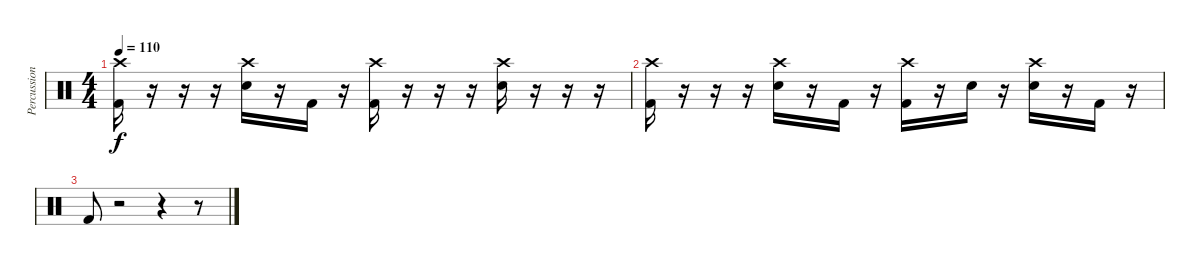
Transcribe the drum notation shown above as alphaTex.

\track ("Percussions" "Percussion") {instrument percussion}
\staff {score}
\articulation defaults
\ts (4 4)
\tempo 110
\clef neutral
\ks c
("Crash high (hit)" "Kick (hit) 2").16{dy f} r.16 r.16 r.16 ("Crash high (hit)" "Electric Snare (hit)").16 r.16 "Kick (hit) 2".16 r.16 ("Crash high (hit)" "Kick (hit) 2").16 r.16 r.16 r.16 ("Crash high (hit)" "Electric Snare (hit)").16 r.16 r.16 r.16 |
("Crash high (hit)" "Kick (hit) 2").16 r.16 r.16 r.16 ("Crash high (hit)" "Electric Snare (hit)").16 r.16 "Kick (hit) 2".16 r.16 ("Crash high (hit)" "Kick (hit) 2").16 r.16 "Electric Snare (hit)".16 r.16 ("Crash high (hit)" "Electric Snare (hit)").16 r.16 "Kick (hit) 2".16 r.16 |
"Kick (hit) 2".8 r.2 r.4 r.8
